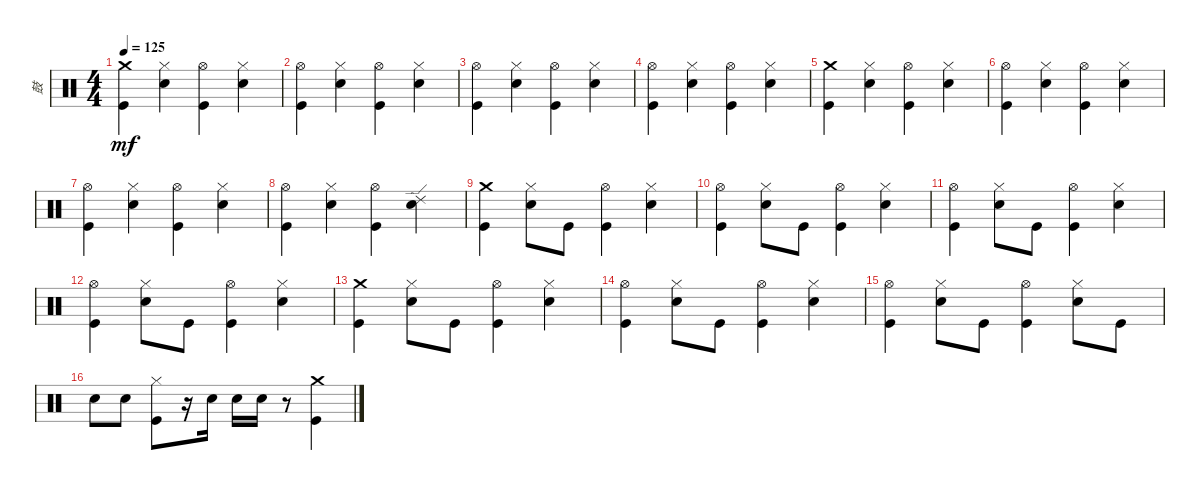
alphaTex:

\track ("鼓" "鼓") {instrument percussion}
\staff {score}
\articulation defaults
\ts (4 4)
\tempo 125
\clef neutral
\ks c
("Kick (hit)" "Crash medium (hit)").4{dy mf} ("Snare (hit) 2" "Hi-Hat (closed)").4 ("Kick (hit)" "Hi-Hat (open)").4 ("Snare (hit) 2" "Hi-Hat (closed)").4 |
("Kick (hit)" "Hi-Hat (open)").4 ("Snare (hit) 2" "Hi-Hat (closed)").4 ("Kick (hit)" "Hi-Hat (open)").4 ("Snare (hit) 2" "Hi-Hat (closed)").4 |
("Kick (hit)" "Hi-Hat (open)").4 ("Snare (hit) 2" "Hi-Hat (closed)").4 ("Kick (hit)" "Hi-Hat (open)").4 ("Snare (hit) 2" "Hi-Hat (closed)").4 |
("Kick (hit)" "Hi-Hat (open)").4 ("Snare (hit) 2" "Hi-Hat (closed)").4 ("Kick (hit)" "Hi-Hat (open)").4 ("Snare (hit) 2" "Hi-Hat (closed)").4 |
("Kick (hit)" "Crash medium (hit)").4 ("Snare (hit) 2" "Hi-Hat (closed)").4 ("Kick (hit)" "Hi-Hat (open)").4 ("Snare (hit) 2" "Hi-Hat (closed)").4 |
("Kick (hit)" "Hi-Hat (open)").4 ("Snare (hit) 2" "Hi-Hat (closed)").4 ("Kick (hit)" "Hi-Hat (open)").4 ("Snare (hit) 2" "Hi-Hat (closed)").4 |
("Kick (hit)" "Hi-Hat (open)").4 ("Snare (hit) 2" "Hi-Hat (closed)").4 ("Kick (hit)" "Hi-Hat (open)").4 ("Snare (hit) 2" "Hi-Hat (closed)").4 |
("Kick (hit)" "Hi-Hat (open)").4 ("Snare (hit) 2" "Hi-Hat (closed)").4 ("Kick (hit)" "Hi-Hat (open)").4 ("Snare (hit) 2" "Ride (edge) 2").4 |
("Kick (hit)" "Crash medium (hit)").4 ("Snare (hit) 2" "Hi-Hat (closed)").8 "Kick (hit)".8 ("Kick (hit)" "Hi-Hat (open)").4 ("Snare (hit) 2" "Hi-Hat (closed)").4 |
("Kick (hit)" "Hi-Hat (open)").4 ("Snare (hit) 2" "Hi-Hat (closed)").8 "Kick (hit)".8 ("Kick (hit)" "Hi-Hat (open)").4 ("Snare (hit) 2" "Hi-Hat (closed)").4 |
("Kick (hit)" "Hi-Hat (open)").4 ("Snare (hit) 2" "Hi-Hat (closed)").8 "Kick (hit)".8 ("Kick (hit)" "Hi-Hat (open)").4 ("Snare (hit) 2" "Hi-Hat (closed)").4 |
("Kick (hit)" "Hi-Hat (open)").4 ("Snare (hit) 2" "Hi-Hat (closed)").8 "Kick (hit)".8 ("Kick (hit)" "Hi-Hat (open)").4 ("Snare (hit) 2" "Hi-Hat (closed)").4 |
("Kick (hit)" "Crash medium (hit)").4 ("Snare (hit) 2" "Hi-Hat (closed)").8 "Kick (hit)".8 ("Kick (hit)" "Hi-Hat (open)").4 ("Snare (hit) 2" "Hi-Hat (closed)").4 |
("Kick (hit)" "Hi-Hat (open)").4 ("Snare (hit) 2" "Hi-Hat (closed)").8 "Kick (hit)".8 ("Kick (hit)" "Hi-Hat (open)").4 ("Snare (hit) 2" "Hi-Hat (closed)").4 |
("Kick (hit)" "Hi-Hat (open)").4 ("Snare (hit) 2" "Hi-Hat (closed)").8 "Kick (hit)".8 ("Kick (hit)" "Hi-Hat (open)").4 ("Snare (hit) 2" "Hi-Hat (closed)").8 "Kick (hit)".8 |
"Snare (hit) 2".8 "Snare (hit) 2".8 ("Kick (hit)" "Hi-Hat (closed)").8 r.16 "Snare (hit) 2".16 "Snare (hit) 2".16 "Snare (hit) 2".16 r.8 ("Kick (hit)" "Crash medium (hit)").4
